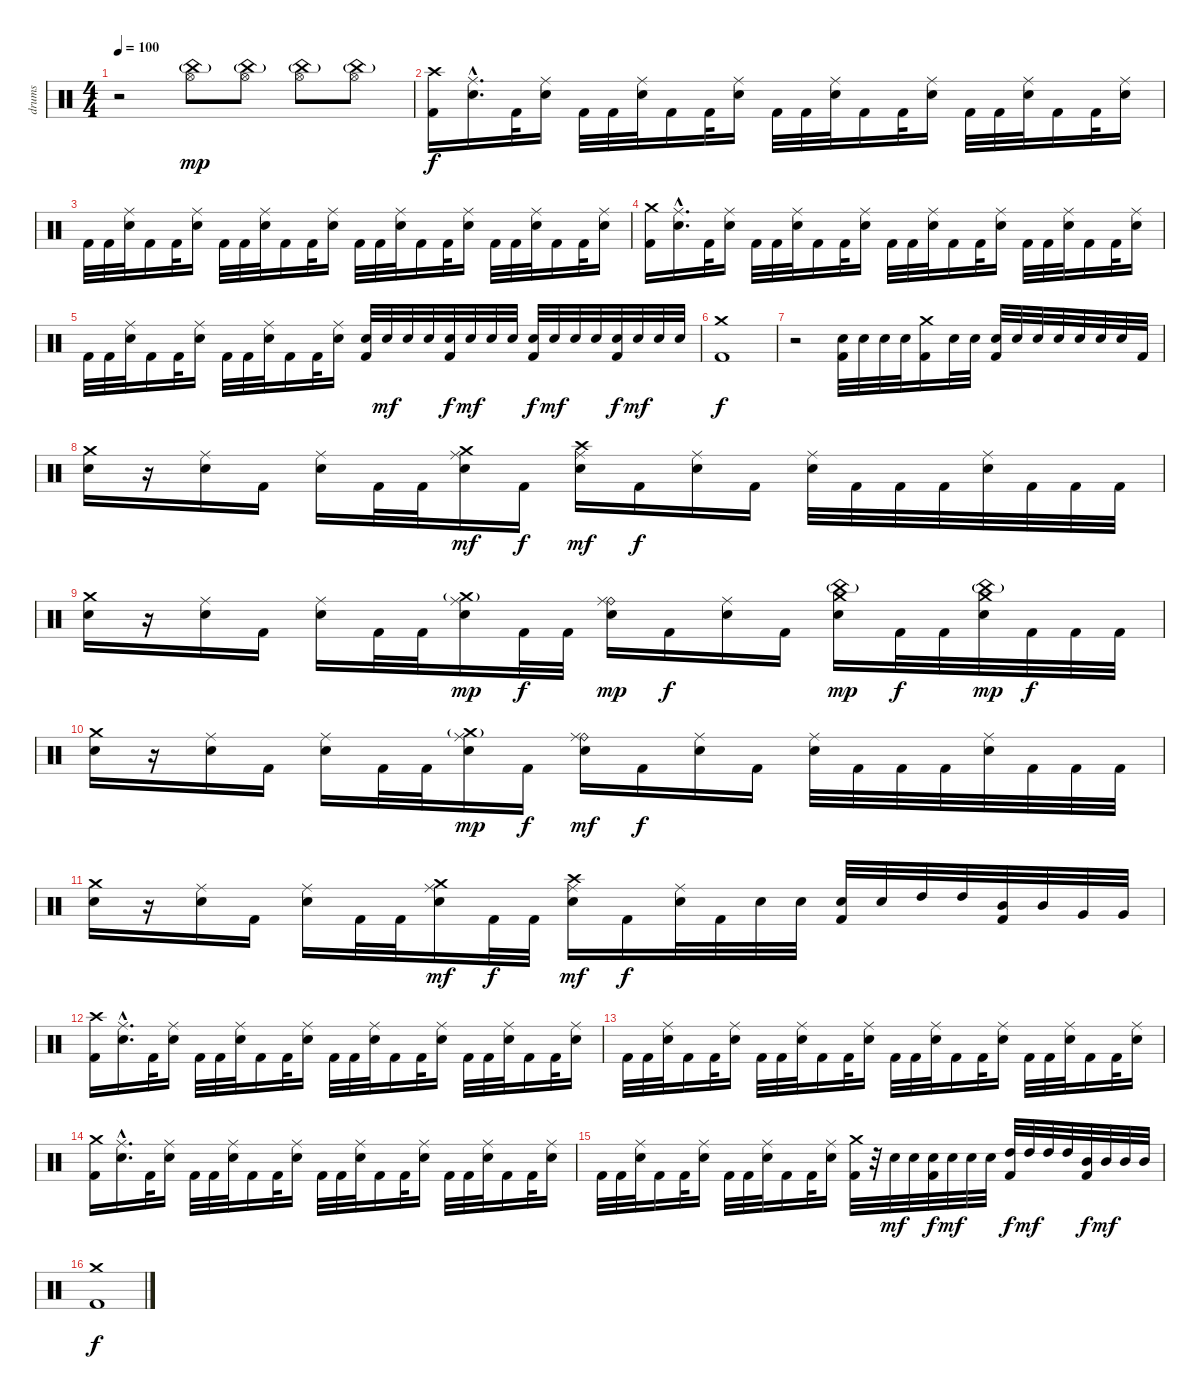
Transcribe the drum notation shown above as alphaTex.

\track ("drums" "drums") {instrument percussion}
\staff {score}
\articulation defaults
\ts (4 4)
\tempo 100
\clef neutral
\ks c
r.2{dy mp} ("China (hit)"{g} "Hi-Hat (open)").8 ("China (hit)"{g} "Hi-Hat (open)").8 ("China (hit)"{g} "Hi-Hat (open)").8 ("China (hit)"{g} "Hi-Hat (open)").8 |
("Crash high (hit)" "Kick (hit) 2").16{dy f} ("Ride (middle)"{hac} "Electric Snare (hit)"{hac}).16{d} "Kick (hit) 2".32 ("Ride (middle)" "Electric Snare (hit)").16 "Kick (hit) 2".32 "Kick (hit) 2".32 ("Ride (middle)" "Electric Snare (hit)").32 "Kick (hit) 2".16 "Kick (hit) 2".32 ("Ride (middle)" "Electric Snare (hit)").16 "Kick (hit) 2".32 "Kick (hit) 2".32 ("Ride (middle)" "Electric Snare (hit)").32 "Kick (hit) 2".16 "Kick (hit) 2".32 ("Ride (middle)" "Electric Snare (hit)").16 "Kick (hit) 2".32 "Kick (hit) 2".32 ("Ride (middle)" "Electric Snare (hit)").32 "Kick (hit) 2".16 "Kick (hit) 2".32 ("Ride (middle)" "Electric Snare (hit)").16 |
"Kick (hit) 2".32 "Kick (hit) 2".32 ("Ride (middle)" "Electric Snare (hit)").32 "Kick (hit) 2".16 "Kick (hit) 2".32 ("Ride (middle)" "Electric Snare (hit)").16 "Kick (hit) 2".32 "Kick (hit) 2".32 ("Ride (middle)" "Electric Snare (hit)").32 "Kick (hit) 2".16 "Kick (hit) 2".32 ("Ride (middle)" "Electric Snare (hit)").16 "Kick (hit) 2".32 "Kick (hit) 2".32 ("Ride (middle)" "Electric Snare (hit)").32 "Kick (hit) 2".16 "Kick (hit) 2".32 ("Ride (middle)" "Electric Snare (hit)").16 "Kick (hit) 2".32 "Kick (hit) 2".32 ("Ride (middle)" "Electric Snare (hit)").32 "Kick (hit) 2".16 "Kick (hit) 2".32 ("Ride (middle)" "Electric Snare (hit)").16 |
("Crash medium (hit)" "Kick (hit) 2").16 ("Ride (middle)"{hac} "Electric Snare (hit)"{hac}).16{d} "Kick (hit) 2".32 ("Ride (middle)" "Electric Snare (hit)").16 "Kick (hit) 2".32 "Kick (hit) 2".32 ("Ride (middle)" "Electric Snare (hit)").32 "Kick (hit) 2".16 "Kick (hit) 2".32 ("Ride (middle)" "Electric Snare (hit)").16 "Kick (hit) 2".32 "Kick (hit) 2".32 ("Ride (middle)" "Electric Snare (hit)").32 "Kick (hit) 2".16 "Kick (hit) 2".32 ("Ride (middle)" "Electric Snare (hit)").16 "Kick (hit) 2".32 "Kick (hit) 2".32 ("Ride (middle)" "Electric Snare (hit)").32 "Kick (hit) 2".16 "Kick (hit) 2".32 ("Ride (middle)" "Electric Snare (hit)").16 |
"Kick (hit) 2".32 "Kick (hit) 2".32 ("Ride (middle)" "Electric Snare (hit)").32 "Kick (hit) 2".16 "Kick (hit) 2".32 ("Ride (middle)" "Electric Snare (hit)").16 "Kick (hit) 2".32 "Kick (hit) 2".32 ("Ride (middle)" "Electric Snare (hit)").32 "Kick (hit) 2".16 "Kick (hit) 2".32 ("Ride (middle)" "Electric Snare (hit)").16 ("Electric Snare (hit)" "Kick (hit) 2").32 "Electric Snare (hit)".32{dy mf} "Electric Snare (hit)".32 "Electric Snare (hit)".32 ("Electric Snare (hit)" "Kick (hit) 2").32{dy f} "Electric Snare (hit)".32{dy mf} "Electric Snare (hit)".32 "Electric Snare (hit)".32 ("Electric Snare (hit)" "Kick (hit) 2").32{dy f} "Electric Snare (hit)".32{dy mf} "Electric Snare (hit)".32 "Electric Snare (hit)".32 ("Electric Snare (hit)" "Kick (hit) 2").32{dy f} "Electric Snare (hit)".32{dy mf} "Electric Snare (hit)".32 "Electric Snare (hit)".32 |
("Crash medium (hit)" "Kick (hit) 2").1{dy f} |
r.2 ("Electric Snare (hit)" "Kick (hit) 2").32 "Electric Snare (hit)".32 "Electric Snare (hit)".32 "Electric Snare (hit)".32 ("Crash medium (hit)" "Kick (hit) 2").16 "Electric Snare (hit)".32 "Electric Snare (hit)".32 ("Electric Snare (hit)" "Kick (hit) 2").32 "Electric Snare (hit)".32 "Electric Snare (hit)".32 "Electric Snare (hit)".32 "Electric Snare (hit)".32 "Electric Snare (hit)".32 "Electric Snare (hit)".32 "Kick (hit) 2".32 |
("Crash medium (hit)" "Electric Snare (hit)").16 r.16 ("Ride (middle)" "Electric Snare (hit)").16 "Kick (hit) 2".16 ("Ride (middle)" "Electric Snare (hit)").16 "Kick (hit) 2".32 "Kick (hit) 2".32 ("Crash medium (hit)" "Ride (middle)" "Electric Snare (hit)").16{dy mf} "Kick (hit) 2".16{dy f} ("Crash high (hit)" "Ride (middle)" "Electric Snare (hit)").16{dy mf} "Kick (hit) 2".16{dy f} ("Ride (middle)" "Electric Snare (hit)").16 "Kick (hit) 2".16 ("Ride (middle)" "Electric Snare (hit)").32 "Kick (hit) 2".32 "Kick (hit) 2".32 "Kick (hit) 2".32 ("Ride (middle)" "Electric Snare (hit)").32 "Kick (hit) 2".32 "Kick (hit) 2".32 "Kick (hit) 2".32 |
("Crash medium (hit)" "Electric Snare (hit)").16 r.16 ("Ride (middle)" "Electric Snare (hit)").16 "Kick (hit) 2".16 ("Ride (middle)" "Electric Snare (hit)").16 "Kick (hit) 2".32 "Kick (hit) 2".32 ("Crash medium (hit)"{g} "Ride (middle)" "Electric Snare (hit)").16{dy mp} "Kick (hit) 2".32{dy f} "Kick (hit) 2".32 ("Ride (bell)" "Ride (middle)" "Electric Snare (hit)").16{dy mp} "Kick (hit) 2".16{dy f} ("Ride (middle)" "Electric Snare (hit)").16 "Kick (hit) 2".16 ("Crash medium (hit)" "China (hit)"{g} "Electric Snare (hit)").16{dy mp} "Kick (hit) 2".32{dy f} "Kick (hit) 2".32 ("Crash medium (hit)" "China (hit)"{g} "Electric Snare (hit)").32{dy mp} "Kick (hit) 2".32{dy f} "Kick (hit) 2".32 "Kick (hit) 2".32 |
("Crash medium (hit)" "Electric Snare (hit)").16 r.16 ("Ride (middle)" "Electric Snare (hit)").16 "Kick (hit) 2".16 ("Ride (middle)" "Electric Snare (hit)").16 "Kick (hit) 2".32 "Kick (hit) 2".32 ("Crash medium (hit)"{g} "Ride (middle)" "Electric Snare (hit)").16{dy mp} "Kick (hit) 2".16{dy f} ("Ride (bell)" "Ride (middle)" "Electric Snare (hit)").16{dy mf} "Kick (hit) 2".16{dy f} ("Ride (middle)" "Electric Snare (hit)").16 "Kick (hit) 2".16 ("Ride (middle)" "Electric Snare (hit)").32 "Kick (hit) 2".32 "Kick (hit) 2".32 "Kick (hit) 2".32 ("Ride (middle)" "Electric Snare (hit)").32 "Kick (hit) 2".32 "Kick (hit) 2".32 "Kick (hit) 2".32 |
("Crash medium (hit)" "Electric Snare (hit)").16 r.16 ("Ride (middle)" "Electric Snare (hit)").16 "Kick (hit) 2".16 ("Ride (middle)" "Electric Snare (hit)").16 "Kick (hit) 2".32 "Kick (hit) 2".32 ("Crash medium (hit)" "Ride (middle)" "Electric Snare (hit)").16{dy mf} "Kick (hit) 2".32{dy f} "Kick (hit) 2".32 ("Crash high (hit)" "Ride (middle)" "Electric Snare (hit)").16{dy mf} "Kick (hit) 2".16{dy f} ("Ride (middle)" "Electric Snare (hit)").32 "Kick (hit) 2".32 "Electric Snare (hit)".32 "Electric Snare (hit)".32 ("Electric Snare (hit)" "Kick (hit) 2").32 "Electric Snare (hit)".32 "High Tom (hit)".32 "High Tom (hit)".32 ("Mid Tom (hit)" "Kick (hit) 2").32 "Mid Tom (hit)".32 "Very Low Tom (hit)".32 "Very Low Tom (hit)".32 |
("Crash high (hit)" "Kick (hit) 2").16 ("Ride (middle)"{hac} "Electric Snare (hit)"{hac}).16{d} "Kick (hit) 2".32 ("Ride (middle)" "Electric Snare (hit)").16 "Kick (hit) 2".32 "Kick (hit) 2".32 ("Ride (middle)" "Electric Snare (hit)").32 "Kick (hit) 2".16 "Kick (hit) 2".32 ("Ride (middle)" "Electric Snare (hit)").16 "Kick (hit) 2".32 "Kick (hit) 2".32 ("Ride (middle)" "Electric Snare (hit)").32 "Kick (hit) 2".16 "Kick (hit) 2".32 ("Ride (middle)" "Electric Snare (hit)").16 "Kick (hit) 2".32 "Kick (hit) 2".32 ("Ride (middle)" "Electric Snare (hit)").32 "Kick (hit) 2".16 "Kick (hit) 2".32 ("Ride (middle)" "Electric Snare (hit)").16 |
"Kick (hit) 2".32 "Kick (hit) 2".32 ("Ride (middle)" "Electric Snare (hit)").32 "Kick (hit) 2".16 "Kick (hit) 2".32 ("Ride (middle)" "Electric Snare (hit)").16 "Kick (hit) 2".32 "Kick (hit) 2".32 ("Ride (middle)" "Electric Snare (hit)").32 "Kick (hit) 2".16 "Kick (hit) 2".32 ("Ride (middle)" "Electric Snare (hit)").16 "Kick (hit) 2".32 "Kick (hit) 2".32 ("Ride (middle)" "Electric Snare (hit)").32 "Kick (hit) 2".16 "Kick (hit) 2".32 ("Ride (middle)" "Electric Snare (hit)").16 "Kick (hit) 2".32 "Kick (hit) 2".32 ("Ride (middle)" "Electric Snare (hit)").32 "Kick (hit) 2".16 "Kick (hit) 2".32 ("Ride (middle)" "Electric Snare (hit)").16 |
("Crash medium (hit)" "Kick (hit) 2").16 ("Ride (middle)"{hac} "Electric Snare (hit)"{hac}).16{d} "Kick (hit) 2".32 ("Ride (middle)" "Electric Snare (hit)").16 "Kick (hit) 2".32 "Kick (hit) 2".32 ("Ride (middle)" "Electric Snare (hit)").32 "Kick (hit) 2".16 "Kick (hit) 2".32 ("Ride (middle)" "Electric Snare (hit)").16 "Kick (hit) 2".32 "Kick (hit) 2".32 ("Ride (middle)" "Electric Snare (hit)").32 "Kick (hit) 2".16 "Kick (hit) 2".32 ("Ride (middle)" "Electric Snare (hit)").16 "Kick (hit) 2".32 "Kick (hit) 2".32 ("Ride (middle)" "Electric Snare (hit)").32 "Kick (hit) 2".16 "Kick (hit) 2".32 ("Ride (middle)" "Electric Snare (hit)").16 |
"Kick (hit) 2".32 "Kick (hit) 2".32 ("Ride (middle)" "Electric Snare (hit)").32 "Kick (hit) 2".16 "Kick (hit) 2".32 ("Ride (middle)" "Electric Snare (hit)").16 "Kick (hit) 2".32 "Kick (hit) 2".32 ("Ride (middle)" "Electric Snare (hit)").32 "Kick (hit) 2".16 "Kick (hit) 2".32 ("Ride (middle)" "Electric Snare (hit)").16 ("Crash medium (hit)" "Kick (hit) 2").32 r.32 "Electric Snare (hit)".32{dy mf} "Electric Snare (hit)".32 ("Electric Snare (hit)" "Kick (hit) 2").32{dy f} "Electric Snare (hit)".32{dy mf} "Electric Snare (hit)".32 "Electric Snare (hit)".32 ("High Tom (hit)" "Kick (hit) 2").32{dy f} "High Tom (hit)".32{dy mf} "High Tom (hit)".32 "High Tom (hit)".32 ("Mid Tom (hit)" "Kick (hit) 2").32{dy f} "Mid Tom (hit)".32{dy mf} "Mid Tom (hit)".32 "Mid Tom (hit)".32 |
("Crash medium (hit)" "Kick (hit) 2").1{dy f}
